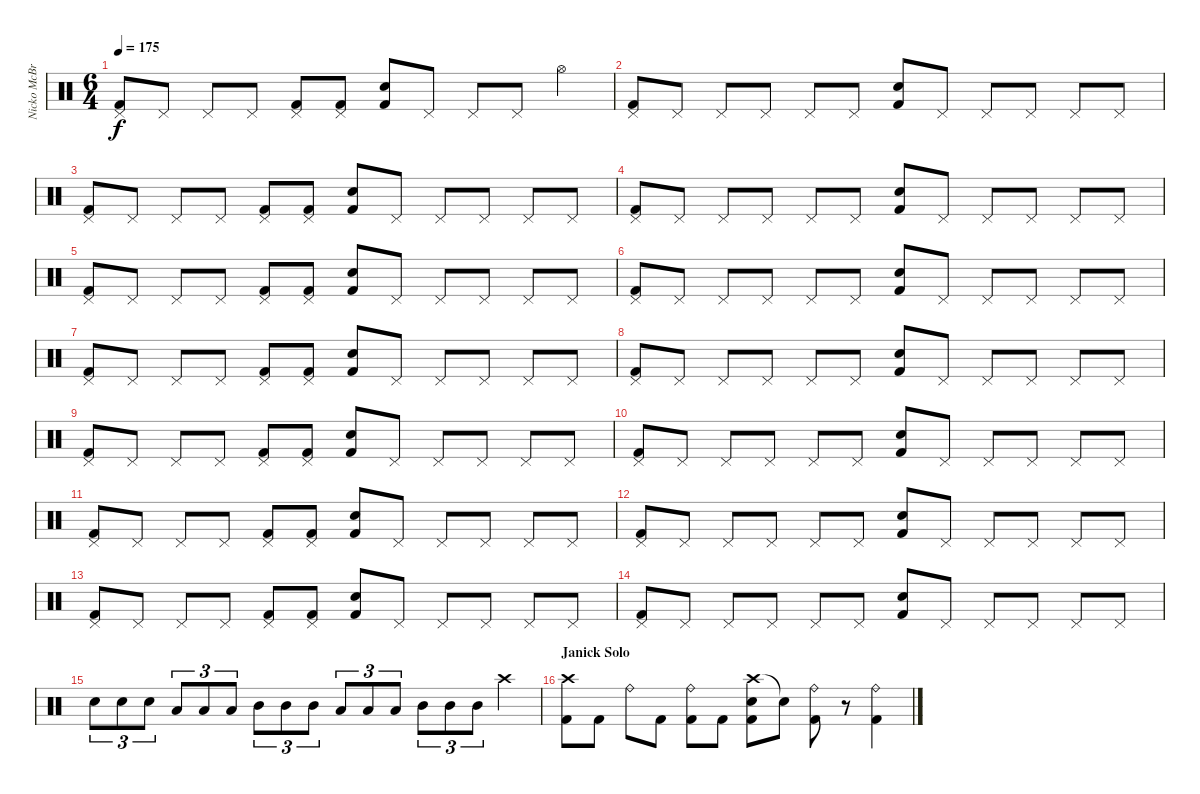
\track ("Nicko McBrain" "Nicko McBr") {instrument percussion}
\staff {score}
\articulation defaults
\ts (6 4)
\tempo 175
\clef neutral
\ks c
("Pedal Hi-Hat (hit)" "Kick (hit) 2").8{dy f} "Pedal Hi-Hat (hit)".8 "Pedal Hi-Hat (hit)".8 "Pedal Hi-Hat (hit)".8 ("Pedal Hi-Hat (hit)" "Kick (hit) 2").8 ("Pedal Hi-Hat (hit)" "Kick (hit) 2").8 ("Snare (hit) 2" "Kick (hit) 2").8 "Pedal Hi-Hat (hit)".8 "Pedal Hi-Hat (hit)".8 "Pedal Hi-Hat (hit)".8 "Hi-Hat (open)".4 |
("Pedal Hi-Hat (hit)" "Kick (hit) 2").8 "Pedal Hi-Hat (hit)".8 "Pedal Hi-Hat (hit)".8 "Pedal Hi-Hat (hit)".8 "Pedal Hi-Hat (hit)".8 "Pedal Hi-Hat (hit)".8 ("Snare (hit) 2" "Kick (hit) 2").8 "Pedal Hi-Hat (hit)".8 "Pedal Hi-Hat (hit)".8 "Pedal Hi-Hat (hit)".8 "Pedal Hi-Hat (hit)".8 "Pedal Hi-Hat (hit)".8 |
("Pedal Hi-Hat (hit)" "Kick (hit) 2").8 "Pedal Hi-Hat (hit)".8 "Pedal Hi-Hat (hit)".8 "Pedal Hi-Hat (hit)".8 ("Pedal Hi-Hat (hit)" "Kick (hit) 2").8 ("Pedal Hi-Hat (hit)" "Kick (hit) 2").8 ("Snare (hit) 2" "Kick (hit) 2").8 "Pedal Hi-Hat (hit)".8 "Pedal Hi-Hat (hit)".8 "Pedal Hi-Hat (hit)".8 "Pedal Hi-Hat (hit)".8 "Pedal Hi-Hat (hit)".8 |
("Pedal Hi-Hat (hit)" "Kick (hit) 2").8 "Pedal Hi-Hat (hit)".8 "Pedal Hi-Hat (hit)".8 "Pedal Hi-Hat (hit)".8 "Pedal Hi-Hat (hit)".8 "Pedal Hi-Hat (hit)".8 ("Snare (hit) 2" "Kick (hit) 2").8 "Pedal Hi-Hat (hit)".8 "Pedal Hi-Hat (hit)".8 "Pedal Hi-Hat (hit)".8 "Pedal Hi-Hat (hit)".8 "Pedal Hi-Hat (hit)".8 |
("Pedal Hi-Hat (hit)" "Kick (hit) 2").8 "Pedal Hi-Hat (hit)".8 "Pedal Hi-Hat (hit)".8 "Pedal Hi-Hat (hit)".8 ("Pedal Hi-Hat (hit)" "Kick (hit) 2").8 ("Pedal Hi-Hat (hit)" "Kick (hit) 2").8 ("Snare (hit) 2" "Kick (hit) 2").8 "Pedal Hi-Hat (hit)".8 "Pedal Hi-Hat (hit)".8 "Pedal Hi-Hat (hit)".8 "Pedal Hi-Hat (hit)".8 "Pedal Hi-Hat (hit)".8 |
("Pedal Hi-Hat (hit)" "Kick (hit) 2").8 "Pedal Hi-Hat (hit)".8 "Pedal Hi-Hat (hit)".8 "Pedal Hi-Hat (hit)".8 "Pedal Hi-Hat (hit)".8 "Pedal Hi-Hat (hit)".8 ("Snare (hit) 2" "Kick (hit) 2").8 "Pedal Hi-Hat (hit)".8 "Pedal Hi-Hat (hit)".8 "Pedal Hi-Hat (hit)".8 "Pedal Hi-Hat (hit)".8 "Pedal Hi-Hat (hit)".8 |
("Pedal Hi-Hat (hit)" "Kick (hit) 2").8 "Pedal Hi-Hat (hit)".8 "Pedal Hi-Hat (hit)".8 "Pedal Hi-Hat (hit)".8 ("Pedal Hi-Hat (hit)" "Kick (hit) 2").8 ("Pedal Hi-Hat (hit)" "Kick (hit) 2").8 ("Snare (hit) 2" "Kick (hit) 2").8 "Pedal Hi-Hat (hit)".8 "Pedal Hi-Hat (hit)".8 "Pedal Hi-Hat (hit)".8 "Pedal Hi-Hat (hit)".8 "Pedal Hi-Hat (hit)".8 |
("Pedal Hi-Hat (hit)" "Kick (hit) 2").8 "Pedal Hi-Hat (hit)".8 "Pedal Hi-Hat (hit)".8 "Pedal Hi-Hat (hit)".8 "Pedal Hi-Hat (hit)".8 "Pedal Hi-Hat (hit)".8 ("Snare (hit) 2" "Kick (hit) 2").8 "Pedal Hi-Hat (hit)".8 "Pedal Hi-Hat (hit)".8 "Pedal Hi-Hat (hit)".8 "Pedal Hi-Hat (hit)".8 "Pedal Hi-Hat (hit)".8 |
("Pedal Hi-Hat (hit)" "Kick (hit) 2").8 "Pedal Hi-Hat (hit)".8 "Pedal Hi-Hat (hit)".8 "Pedal Hi-Hat (hit)".8 ("Pedal Hi-Hat (hit)" "Kick (hit) 2").8 ("Pedal Hi-Hat (hit)" "Kick (hit) 2").8 ("Snare (hit) 2" "Kick (hit) 2").8 "Pedal Hi-Hat (hit)".8 "Pedal Hi-Hat (hit)".8 "Pedal Hi-Hat (hit)".8 "Pedal Hi-Hat (hit)".8 "Pedal Hi-Hat (hit)".8 |
("Pedal Hi-Hat (hit)" "Kick (hit) 2").8 "Pedal Hi-Hat (hit)".8 "Pedal Hi-Hat (hit)".8 "Pedal Hi-Hat (hit)".8 "Pedal Hi-Hat (hit)".8 "Pedal Hi-Hat (hit)".8 ("Snare (hit) 2" "Kick (hit) 2").8 "Pedal Hi-Hat (hit)".8 "Pedal Hi-Hat (hit)".8 "Pedal Hi-Hat (hit)".8 "Pedal Hi-Hat (hit)".8 "Pedal Hi-Hat (hit)".8 |
("Pedal Hi-Hat (hit)" "Kick (hit) 2").8 "Pedal Hi-Hat (hit)".8 "Pedal Hi-Hat (hit)".8 "Pedal Hi-Hat (hit)".8 ("Pedal Hi-Hat (hit)" "Kick (hit) 2").8 ("Pedal Hi-Hat (hit)" "Kick (hit) 2").8 ("Snare (hit) 2" "Kick (hit) 2").8 "Pedal Hi-Hat (hit)".8 "Pedal Hi-Hat (hit)".8 "Pedal Hi-Hat (hit)".8 "Pedal Hi-Hat (hit)".8 "Pedal Hi-Hat (hit)".8 |
("Pedal Hi-Hat (hit)" "Kick (hit) 2").8 "Pedal Hi-Hat (hit)".8 "Pedal Hi-Hat (hit)".8 "Pedal Hi-Hat (hit)".8 "Pedal Hi-Hat (hit)".8 "Pedal Hi-Hat (hit)".8 ("Snare (hit) 2" "Kick (hit) 2").8 "Pedal Hi-Hat (hit)".8 "Pedal Hi-Hat (hit)".8 "Pedal Hi-Hat (hit)".8 "Pedal Hi-Hat (hit)".8 "Pedal Hi-Hat (hit)".8 |
("Pedal Hi-Hat (hit)" "Kick (hit) 2").8 "Pedal Hi-Hat (hit)".8 "Pedal Hi-Hat (hit)".8 "Pedal Hi-Hat (hit)".8 ("Pedal Hi-Hat (hit)" "Kick (hit) 2").8 ("Pedal Hi-Hat (hit)" "Kick (hit) 2").8 ("Snare (hit) 2" "Kick (hit) 2").8 "Pedal Hi-Hat (hit)".8 "Pedal Hi-Hat (hit)".8 "Pedal Hi-Hat (hit)".8 "Pedal Hi-Hat (hit)".8 "Pedal Hi-Hat (hit)".8 |
("Pedal Hi-Hat (hit)" "Kick (hit) 2").8 "Pedal Hi-Hat (hit)".8 "Pedal Hi-Hat (hit)".8 "Pedal Hi-Hat (hit)".8 "Pedal Hi-Hat (hit)".8 "Pedal Hi-Hat (hit)".8 ("Snare (hit) 2" "Kick (hit) 2").8 "Pedal Hi-Hat (hit)".8 "Pedal Hi-Hat (hit)".8 "Pedal Hi-Hat (hit)".8 "Pedal Hi-Hat (hit)".8 "Pedal Hi-Hat (hit)".8 |
"Snare (hit) 2".8{tu (3 2)} "Snare (hit) 2".8{tu (3 2)} "Snare (hit) 2".8{tu (3 2)} "Low Tom (hit)".8{tu (3 2)} "Low Tom (hit)".8{tu (3 2)} "Low Tom (hit)".8{tu (3 2)} "Mid Tom (hit)".8{tu (3 2)} "Mid Tom (hit)".8{tu (3 2)} "Mid Tom (hit)".8{tu (3 2)} "Low Tom (hit)".8{tu (3 2)} "Low Tom (hit)".8{tu (3 2)} "Low Tom (hit)".8{tu (3 2)} "Mid Tom (hit)".8{tu (3 2)} "Mid Tom (hit)".8{tu (3 2)} "Mid Tom (hit)".8{tu (3 2)} "Crash high (hit)".4 |
\section ("" "Janick Solo")
("Crash high (hit)" "Kick (hit) 2").8 "Kick (hit) 2".8 "Ride (bell)".8 "Kick (hit) 2".8 ("Ride (bell)" "Kick (hit) 2").8 "Kick (hit) 2".8 ("Crash high (hit)" "Snare (hit) 2" "Kick (hit) 2").8 "Snare (hit) 2"{t}.8 ("Ride (bell)" "Kick (hit) 2").8 r.8 ("Ride (bell)" "Kick (hit) 2").4
